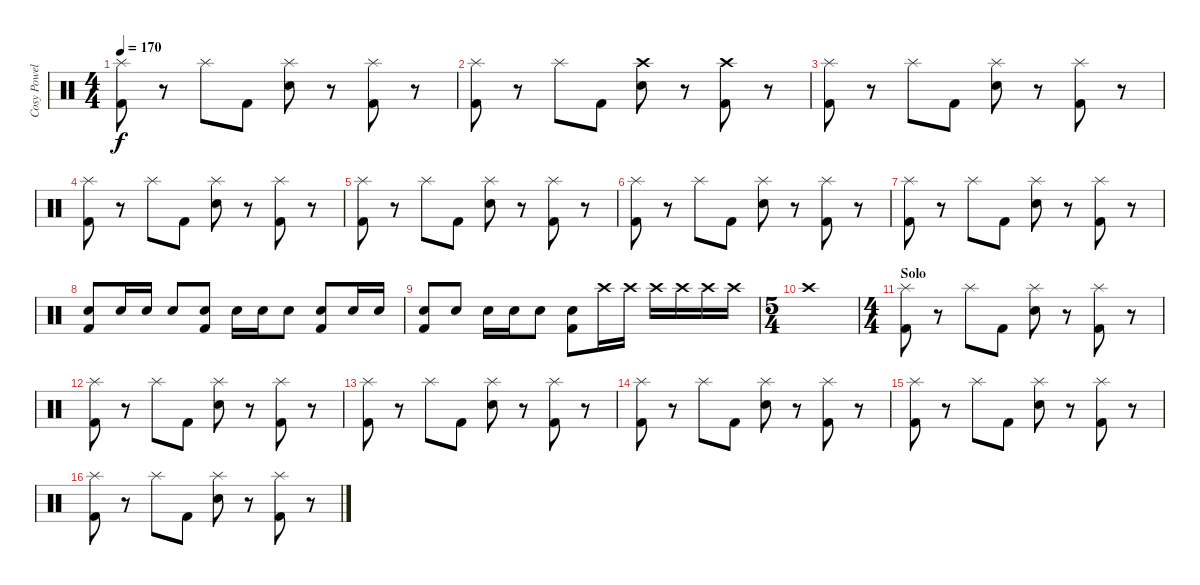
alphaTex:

\track ("Cosy Powell" "Cosy Powel") {instrument percussion}
\staff {score}
\articulation defaults
\ts (4 4)
\tempo 170
\clef neutral
\ks c
("Splash (hit)" "Kick (hit) 2").8{dy f} r.8 "Splash (hit)".8 "Kick (hit) 2".8 ("Splash (hit)" "Snare (hit) 2").8 r.8 ("Splash (hit)" "Kick (hit) 2").8 r.8 |
("Splash (hit)" "Kick (hit) 2").8 r.8 "Splash (hit)".8 "Kick (hit) 2".8 ("Crash high (hit)" "Snare (hit) 2").8 r.8 ("Crash high (hit)" "Kick (hit) 2").8 r.8 |
("Splash (hit)" "Kick (hit) 2").8 r.8 "Splash (hit)".8 "Kick (hit) 2".8 ("Splash (hit)" "Snare (hit) 2").8 r.8 ("Splash (hit)" "Kick (hit) 2").8 r.8 |
("Splash (hit)" "Kick (hit) 2").8 r.8 "Splash (hit)".8 "Kick (hit) 2".8 ("Splash (hit)" "Snare (hit) 2").8 r.8 ("Splash (hit)" "Kick (hit) 2").8 r.8 |
("Splash (hit)" "Kick (hit) 2").8 r.8 "Splash (hit)".8 "Kick (hit) 2".8 ("Splash (hit)" "Snare (hit) 2").8 r.8 ("Splash (hit)" "Kick (hit) 2").8 r.8 |
("Splash (hit)" "Kick (hit) 2").8 r.8 "Splash (hit)".8 "Kick (hit) 2".8 ("Splash (hit)" "Snare (hit) 2").8 r.8 ("Splash (hit)" "Kick (hit) 2").8 r.8 |
("Splash (hit)" "Kick (hit) 2").8 r.8 "Splash (hit)".8 "Kick (hit) 2".8 ("Splash (hit)" "Snare (hit) 2").8 r.8 ("Splash (hit)" "Kick (hit) 2").8 r.8 |
("Snare (hit) 2" "Kick (hit) 2").8 "Snare (hit) 2".16 "Snare (hit) 2".16 "Snare (hit) 2".8 ("Snare (hit) 2" "Kick (hit) 2").8 "Snare (hit) 2".16 "Snare (hit) 2".16 "Snare (hit) 2".8 ("Snare (hit) 2" "Kick (hit) 2").8 "Snare (hit) 2".16 "Snare (hit) 2".16 |
("Snare (hit) 2" "Kick (hit) 2").8 "Snare (hit) 2".8 "Snare (hit) 2".16 "Snare (hit) 2".16 "Snare (hit) 2".8 ("Snare (hit) 2" "Kick (hit) 2").8 "Crash high (hit)".16 "Crash high (hit)".16 "Crash high (hit)".16 "Crash high (hit)".16 "Crash high (hit)".16 "Crash high (hit)".16 |
\ts (5 4)
"Crash high (hit)".1 |
\ts (4 4)
\section ("" "Solo")
("Splash (hit)" "Kick (hit) 2").8 r.8 "Splash (hit)".8 "Kick (hit) 2".8 ("Splash (hit)" "Snare (hit) 2").8 r.8 ("Splash (hit)" "Kick (hit) 2").8 r.8 |
("Splash (hit)" "Kick (hit) 2").8 r.8 "Splash (hit)".8 "Kick (hit) 2".8 ("Splash (hit)" "Snare (hit) 2").8 r.8 ("Splash (hit)" "Kick (hit) 2").8 r.8 |
("Splash (hit)" "Kick (hit) 2").8 r.8 "Splash (hit)".8 "Kick (hit) 2".8 ("Splash (hit)" "Snare (hit) 2").8 r.8 ("Splash (hit)" "Kick (hit) 2").8 r.8 |
("Splash (hit)" "Kick (hit) 2").8 r.8 "Splash (hit)".8 "Kick (hit) 2".8 ("Splash (hit)" "Snare (hit) 2").8 r.8 ("Splash (hit)" "Kick (hit) 2").8 r.8 |
("Splash (hit)" "Kick (hit) 2").8 r.8 "Splash (hit)".8 "Kick (hit) 2".8 ("Splash (hit)" "Snare (hit) 2").8 r.8 ("Splash (hit)" "Kick (hit) 2").8 r.8 |
("Splash (hit)" "Kick (hit) 2").8 r.8 "Splash (hit)".8 "Kick (hit) 2".8 ("Splash (hit)" "Snare (hit) 2").8 r.8 ("Splash (hit)" "Kick (hit) 2").8 r.8
